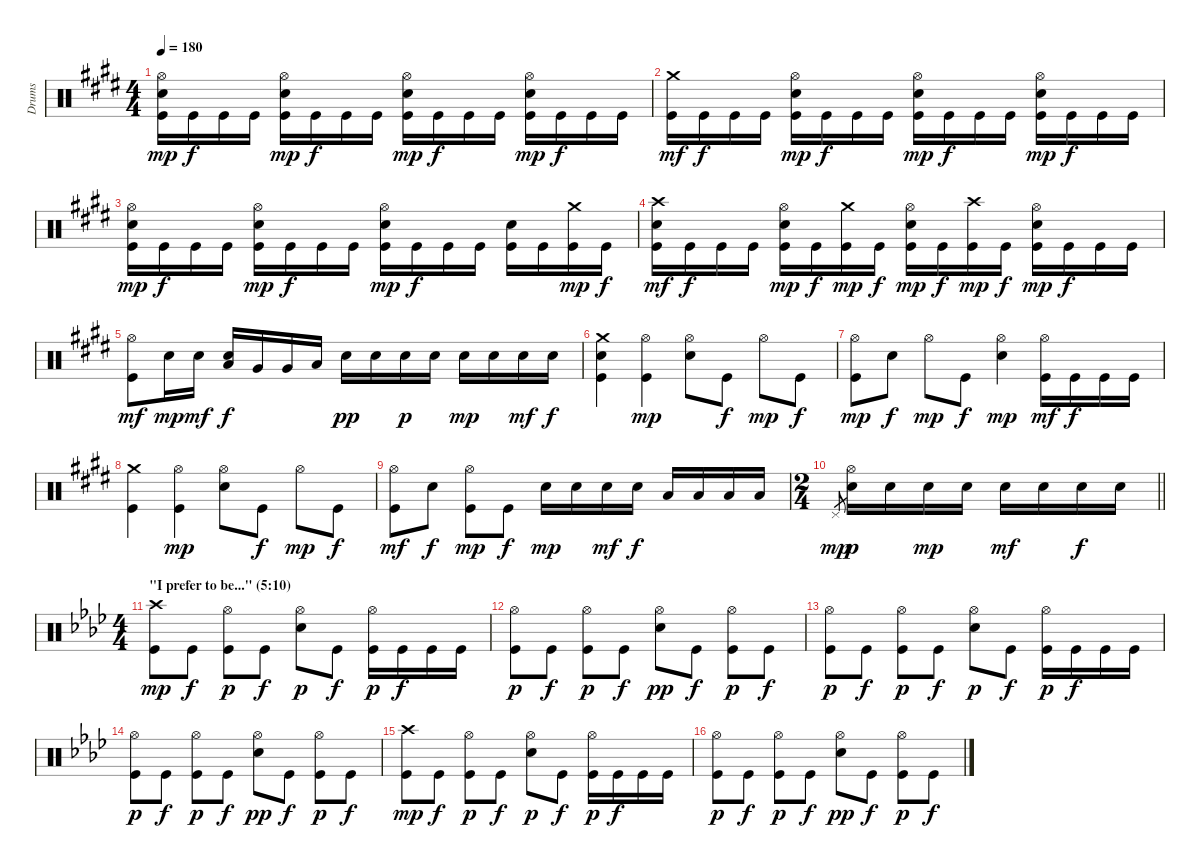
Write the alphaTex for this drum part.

\track ("Drums" "Drums") {instrument percussion}
\staff {score}
\articulation defaults
\ts (4 4)
\tempo 180
\clef neutral
\ks c#minor
("Hi-Hat (open)" "Snare (hit) 2" "Kick (hit)").16{dy mp} "Kick (hit)".16{dy f} "Kick (hit)".16 "Kick (hit)".16 ("Hi-Hat (open)" "Snare (hit) 2" "Kick (hit)").16{dy mp} "Kick (hit)".16{dy f} "Kick (hit)".16 "Kick (hit)".16 ("Hi-Hat (open)" "Snare (hit) 2" "Kick (hit)").16{dy mp} "Kick (hit)".16{dy f} "Kick (hit)".16 "Kick (hit)".16 ("Hi-Hat (open)" "Snare (hit) 2" "Kick (hit)").16{dy mp} "Kick (hit)".16{dy f} "Kick (hit)".16 "Kick (hit)".16 |
("Crash medium (hit)" "Kick (hit)").16{dy mf} "Kick (hit)".16{dy f} "Kick (hit)".16 "Kick (hit)".16 ("Hi-Hat (open)" "Snare (hit) 2" "Kick (hit)").16{dy mp} "Kick (hit)".16{dy f} "Kick (hit)".16 "Kick (hit)".16 ("Hi-Hat (open)" "Snare (hit) 2" "Kick (hit)").16{dy mp} "Kick (hit)".16{dy f} "Kick (hit)".16 "Kick (hit)".16 ("Hi-Hat (open)" "Snare (hit) 2" "Kick (hit)").16{dy mp} "Kick (hit)".16{dy f} "Kick (hit)".16 "Kick (hit)".16 |
("Hi-Hat (open)" "Snare (hit) 2" "Kick (hit)").16{dy mp} "Kick (hit)".16{dy f} "Kick (hit)".16 "Kick (hit)".16 ("Hi-Hat (open)" "Snare (hit) 2" "Kick (hit)").16{dy mp} "Kick (hit)".16{dy f} "Kick (hit)".16 "Kick (hit)".16 ("Hi-Hat (open)" "Snare (hit) 2" "Kick (hit)").16{dy mp} "Kick (hit)".16{dy f} "Kick (hit)".16 "Kick (hit)".16 ("Snare (hit) 2" "Kick (hit)").16 "Kick (hit)".16 ("Crash medium (hit)" "Kick (hit)").16{dy mp} "Kick (hit)".16{dy f} |
("Crash high (hit)" "Snare (hit) 2" "Kick (hit)").16{dy mf} "Kick (hit)".16{dy f} "Kick (hit)".16 "Kick (hit)".16 ("Hi-Hat (open)" "Snare (hit) 2" "Kick (hit)").16{dy mp} "Kick (hit)".16{dy f} ("Crash medium (hit)" "Kick (hit)").16{dy mp} "Kick (hit)".16{dy f} ("Hi-Hat (open)" "Snare (hit) 2" "Kick (hit)").16{dy mp} "Kick (hit)".16{dy f} ("Crash high (hit)" "Kick (hit)").16{dy mp} "Kick (hit)".16{dy f} ("Hi-Hat (open)" "Snare (hit) 2" "Kick (hit)").16{dy mp} "Kick (hit)".16{dy f} "Kick (hit)".16 "Kick (hit)".16 |
("Hi-Hat (open)" "Kick (hit)").8{dy mf} "Snare (hit) 2".16{dy mp} "Snare (hit) 2".16{dy mf} ("Low Tom (hit)" "Snare (hit) 2").16{dy f} "Very Low Tom (hit)".16 "Very Low Tom (hit)".16 "Low Floor Tom (hit)".16 "Snare (hit) 2".16{dy pp} "Snare (hit) 2".16 "Snare (hit) 2".16{dy p} "Snare (hit) 2".16 "Snare (hit) 2".16{dy mp} "Snare (hit) 2".16 "Snare (hit) 2".16{dy mf} "Snare (hit) 2".16{dy f} |
("Crash medium (hit)" "Snare (hit) 2" "Kick (hit)").4 ("Hi-Hat (open)" "Kick (hit)").4{dy mp} ("Hi-Hat (open)" "Snare (hit) 2").8 "Kick (hit)".8{dy f} "Hi-Hat (open)".8{dy mp} "Kick (hit)".8{dy f} |
("Hi-Hat (open)" "Kick (hit)").8{dy mp} "Snare (hit) 2".8{dy f} "Hi-Hat (open)".8{dy mp} "Kick (hit)".8{dy f} ("Hi-Hat (open)" "Snare (hit) 2").4{dy mp} ("Hi-Hat (open)" "Kick (hit)").16{dy mf} "Kick (hit)".16{dy f} "Kick (hit)".16 "Kick (hit)".16 |
("Crash medium (hit)" "Kick (hit)").4 ("Hi-Hat (open)" "Kick (hit)").4{dy mp} ("Hi-Hat (open)" "Snare (hit) 2").8 "Kick (hit)".8{dy f} "Hi-Hat (open)".8{dy mp} "Kick (hit)".8{dy f} |
("Hi-Hat (open)" "Kick (hit)").8{dy mf} "Snare (hit) 2".8{dy f} ("Hi-Hat (open)" "Kick (hit)").8{dy mp} "Kick (hit)".8{dy f} "Snare (hit) 2".16{dy mp} "Snare (hit) 2".16 "Snare (hit) 2".16{dy mf} "Snare (hit) 2".16{dy f} "Low Tom (hit)".16 "Low Tom (hit)".16 "Low Tom (hit)".16 "Low Tom (hit)".16 |
\ts (2 4)
\barLineRight lightlight "Pedal Hi-Hat (hit)".8{gr dy mp}
("Hi-Hat (open)" "Snare (hit) 2").16{dy p} "Snare (hit) 2".16 "Snare (hit) 2".16{dy mp} "Snare (hit) 2".16 "Snare (hit) 2".16{dy mf} "Snare (hit) 2".16 "Snare (hit) 2".16{dy f} "Snare (hit) 2".16 |
\ts (4 4)
\section ("" "\"I prefer to be...\" (5:10)")
\ks fminor
("Crash high (hit)" "Kick (hit)").8{dy mp} "Kick (hit)".8{dy f} ("Hi-Hat (open)" "Kick (hit)").8{dy p} "Kick (hit)".8{dy f} ("Hi-Hat (open)" "Snare (hit) 2").8{dy p} "Kick (hit)".8{dy f} ("Hi-Hat (open)" "Kick (hit)").16{dy p} "Kick (hit)".16{dy f} "Kick (hit)".16 "Kick (hit)".16 |
("Hi-Hat (open)" "Kick (hit)").8{dy p} "Kick (hit)".8{dy f} ("Hi-Hat (open)" "Kick (hit)").8{dy p} "Kick (hit)".8{dy f} ("Hi-Hat (open)" "Snare (hit) 2").8{dy pp} "Kick (hit)".8{dy f} ("Hi-Hat (open)" "Kick (hit)").8{dy p} "Kick (hit)".8{dy f} |
("Hi-Hat (open)" "Kick (hit)").8{dy p} "Kick (hit)".8{dy f} ("Hi-Hat (open)" "Kick (hit)").8{dy p} "Kick (hit)".8{dy f} ("Hi-Hat (open)" "Snare (hit) 2").8{dy p} "Kick (hit)".8{dy f} ("Hi-Hat (open)" "Kick (hit)").16{dy p} "Kick (hit)".16{dy f} "Kick (hit)".16 "Kick (hit)".16 |
("Hi-Hat (open)" "Kick (hit)").8{dy p} "Kick (hit)".8{dy f} ("Hi-Hat (open)" "Kick (hit)").8{dy p} "Kick (hit)".8{dy f} ("Hi-Hat (open)" "Snare (hit) 2").8{dy pp} "Kick (hit)".8{dy f} ("Hi-Hat (open)" "Kick (hit)").8{dy p} "Kick (hit)".8{dy f} |
("Crash high (hit)" "Kick (hit)").8{dy mp} "Kick (hit)".8{dy f} ("Hi-Hat (open)" "Kick (hit)").8{dy p} "Kick (hit)".8{dy f} ("Hi-Hat (open)" "Snare (hit) 2").8{dy p} "Kick (hit)".8{dy f} ("Hi-Hat (open)" "Kick (hit)").16{dy p} "Kick (hit)".16{dy f} "Kick (hit)".16 "Kick (hit)".16 |
("Hi-Hat (open)" "Kick (hit)").8{dy p} "Kick (hit)".8{dy f} ("Hi-Hat (open)" "Kick (hit)").8{dy p} "Kick (hit)".8{dy f} ("Hi-Hat (open)" "Snare (hit) 2").8{dy pp} "Kick (hit)".8{dy f} ("Hi-Hat (open)" "Kick (hit)").8{dy p} "Kick (hit)".8{dy f}
